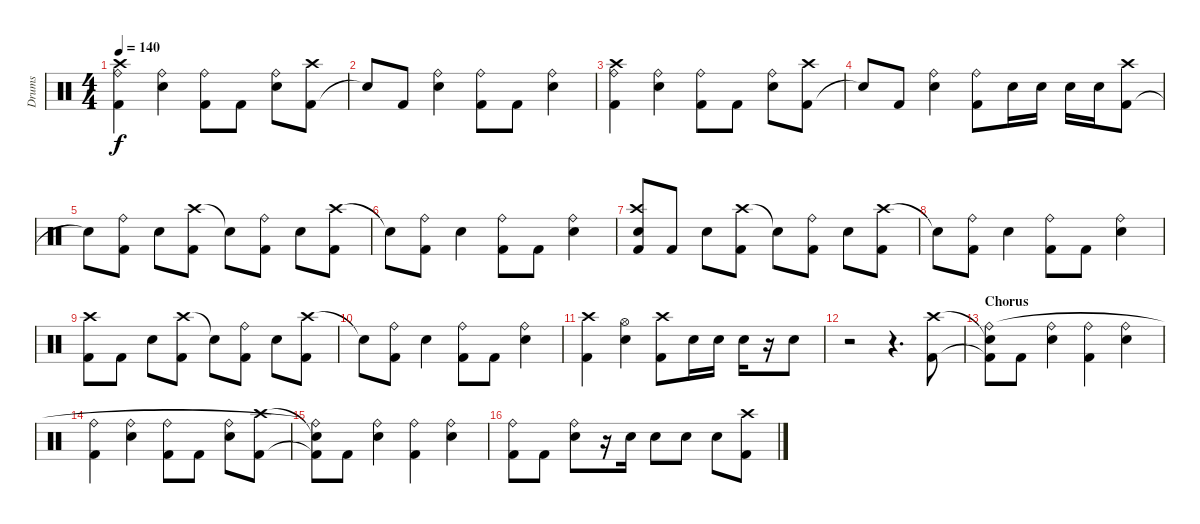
\track ("Drums" "Drums") {instrument percussion}
\staff {score}
\articulation defaults
\ts (4 4)
\tempo 140
\clef neutral
\ks c
("Ride (bell)" "Kick (hit) 2" "Crash high (hit)").4{dy f} ("Ride (bell)" "Electric Snare (hit)").4 ("Ride (bell)" "Kick (hit) 2").8 "Kick (hit) 2".8 ("Ride (bell)" "Electric Snare (hit)").8 ("Kick (hit) 2" "Crash high (hit)").8 |
"Snare (hit)"{t}.8 "Kick (hit) 2".8 ("Ride (bell)" "Electric Snare (hit)").4 ("Ride (bell)" "Kick (hit) 2").8 "Kick (hit) 2".8 ("Ride (bell)" "Electric Snare (hit)").4 |
("Ride (bell)" "Kick (hit) 2" "Crash high (hit)").4 ("Ride (bell)" "Electric Snare (hit)").4 ("Ride (bell)" "Kick (hit) 2").8 "Kick (hit) 2".8 ("Ride (bell)" "Electric Snare (hit)").8 ("Kick (hit) 2" "Crash high (hit)").8 |
"Snare (hit)"{t}.8 "Kick (hit) 2".8 ("Ride (bell)" "Electric Snare (hit)").4 ("Ride (bell)" "Kick (hit) 2").8 "Electric Snare (hit)".16 "Electric Snare (hit)".16 "Electric Snare (hit)".16 "Electric Snare (hit)".16 ("Kick (hit) 2" "Crash high (hit)").8 |
"Snare (hit)"{t}.8 ("Ride (bell)" "Kick (hit) 2").8 "Electric Snare (hit)".8 ("Crash high (hit)" "Kick (hit) 2").8 "Snare (hit)"{t}.8 ("Ride (bell)" "Kick (hit) 2").8 "Electric Snare (hit)".8 ("Crash high (hit)" "Kick (hit) 2").8 |
"Snare (hit)"{t}.8 ("Ride (bell)" "Kick (hit) 2").8 "Electric Snare (hit)".4 ("Ride (bell)" "Kick (hit) 2").8 "Kick (hit) 2".8 ("Ride (bell)" "Electric Snare (hit)").4 |
("Crash high (hit)" "Kick (hit) 2" "Snare (hit)").8 "Kick (hit) 2".8 "Electric Snare (hit)".8 ("Crash high (hit)" "Kick (hit) 2").8 "Snare (hit)"{t}.8 ("Ride (bell)" "Kick (hit) 2").8 "Electric Snare (hit)".8 ("Crash high (hit)" "Kick (hit) 2").8 |
"Snare (hit)"{t}.8 ("Ride (bell)" "Kick (hit) 2").8 "Electric Snare (hit)".4 ("Ride (bell)" "Kick (hit) 2").8 "Kick (hit) 2".8 ("Ride (bell)" "Electric Snare (hit)").4 |
("Crash high (hit)" "Kick (hit) 2").8 "Kick (hit) 2".8 "Electric Snare (hit)".8 ("Crash high (hit)" "Kick (hit) 2").8 "Snare (hit)"{t}.8 ("Ride (bell)" "Kick (hit) 2").8 "Electric Snare (hit)".8 ("Crash high (hit)" "Kick (hit) 2").8 |
"Snare (hit)"{t}.8 ("Ride (bell)" "Kick (hit) 2").8 "Electric Snare (hit)".4 ("Ride (bell)" "Kick (hit) 2").8 "Kick (hit) 2".8 ("Ride (bell)" "Electric Snare (hit)").4 |
("Kick (hit) 2" "Crash high (hit)").4 ("Electric Snare (hit)" "Hi-Hat (open)").4 ("Kick (hit) 2" "Crash high (hit)").8 "Electric Snare (hit)".16 "Electric Snare (hit)".16 "Electric Snare (hit)".16 r.16 "Electric Snare (hit)".8 |
r.2 r.4{d} ("Kick (hit) 2" "Crash high (hit)").8 |
\section ("" "Chorus")
("Kick (hit) 2"{t} "Snare (hit)"{t} "Ride (bell)").8 "Kick (hit) 2".8 ("Electric Snare (hit)" "Ride (bell)").4 ("Kick (hit) 2" "Ride (bell)").4 ("Electric Snare (hit)" "Ride (bell)").4 |
("Kick (hit) 2" "Ride (bell)").4 ("Electric Snare (hit)" "Ride (bell)").4 ("Kick (hit) 2" "Ride (bell)").8 "Kick (hit) 2".8 ("Electric Snare (hit)" "Ride (bell)").8 ("Kick (hit) 2" "Crash high (hit)").8 |
("Kick (hit) 2"{t} "Snare (hit)"{t} "Ride (bell)"{t}).8 "Kick (hit) 2".8 ("Electric Snare (hit)" "Ride (bell)").4 ("Kick (hit) 2" "Ride (bell)").4 ("Electric Snare (hit)" "Ride (bell)").4 |
("Kick (hit) 2" "Ride (bell)").8 "Kick (hit) 2".8 ("Electric Snare (hit)" "Ride (bell)").8 r.16 "Electric Snare (hit)".16 "Electric Snare (hit)".8 "Electric Snare (hit)".8 "Electric Snare (hit)".8 ("Kick (hit) 2" "Crash high (hit)").8
